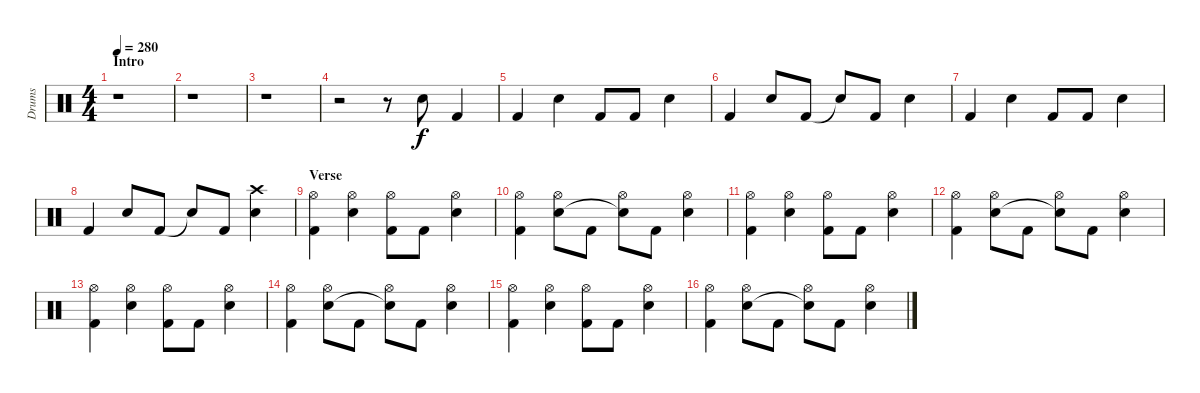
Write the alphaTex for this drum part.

\track ("Drums" "Drums") {instrument percussion}
\staff {score}
\articulation defaults
\ts (4 4)
\section ("" "Intro")
\tempo 280
\clef neutral
\ks c
r.1{dy f} |
r.1 |
r.1 |
r.2 r.8 "Snare (hit) 2".8 "Kick (hit) 2".4 |
"Kick (hit) 2".4 "Snare (hit) 2".4 "Kick (hit) 2".8 "Kick (hit) 2".8 "Snare (hit) 2".4 |
"Kick (hit) 2".4 "Snare (hit) 2".8 "Kick (hit) 2".8 "Snare (hit)"{t}.8 "Kick (hit) 2".8 "Snare (hit) 2".4 |
"Kick (hit) 2".4 "Snare (hit) 2".4 "Kick (hit) 2".8 "Kick (hit) 2".8 "Snare (hit) 2".4 |
"Kick (hit) 2".4 "Snare (hit) 2".8 "Kick (hit) 2".8 "Snare (hit)"{t}.8 "Kick (hit) 2".8 ("Crash high (hit)" "Snare (hit) 2").4 |
\section ("" "Verse")
("Hi-Hat (open)" "Kick (hit) 2").4 ("Hi-Hat (open)" "Snare (hit) 2").4 ("Hi-Hat (open)" "Kick (hit) 2").8 "Kick (hit) 2".8 ("Hi-Hat (open)" "Snare (hit) 2").4 |
("Hi-Hat (open)" "Kick (hit) 2").4 ("Hi-Hat (open)" "Snare (hit) 2").8 "Kick (hit) 2".8 ("Hi-Hat (open)" "Snare (hit)"{t}).8 "Kick (hit) 2".8 ("Hi-Hat (open)" "Snare (hit) 2").4 |
("Hi-Hat (open)" "Kick (hit) 2").4 ("Hi-Hat (open)" "Snare (hit) 2").4 ("Hi-Hat (open)" "Kick (hit) 2").8 "Kick (hit) 2".8 ("Hi-Hat (open)" "Snare (hit) 2").4 |
("Hi-Hat (open)" "Kick (hit) 2").4 ("Hi-Hat (open)" "Snare (hit) 2").8 "Kick (hit) 2".8 ("Hi-Hat (open)" "Snare (hit)"{t}).8 "Kick (hit) 2".8 ("Hi-Hat (open)" "Snare (hit) 2").4 |
("Hi-Hat (open)" "Kick (hit) 2").4 ("Hi-Hat (open)" "Snare (hit) 2").4 ("Hi-Hat (open)" "Kick (hit) 2").8 "Kick (hit) 2".8 ("Hi-Hat (open)" "Snare (hit) 2").4 |
("Hi-Hat (open)" "Kick (hit) 2").4 ("Hi-Hat (open)" "Snare (hit) 2").8 "Kick (hit) 2".8 ("Hi-Hat (open)" "Snare (hit)"{t}).8 "Kick (hit) 2".8 ("Hi-Hat (open)" "Snare (hit) 2").4 |
("Hi-Hat (open)" "Kick (hit) 2").4 ("Hi-Hat (open)" "Snare (hit) 2").4 ("Hi-Hat (open)" "Kick (hit) 2").8 "Kick (hit) 2".8 ("Hi-Hat (open)" "Snare (hit) 2").4 |
("Hi-Hat (open)" "Kick (hit) 2").4 ("Hi-Hat (open)" "Snare (hit) 2").8 "Kick (hit) 2".8 ("Hi-Hat (open)" "Snare (hit)"{t}).8 "Kick (hit) 2".8 ("Hi-Hat (open)" "Snare (hit) 2").4
